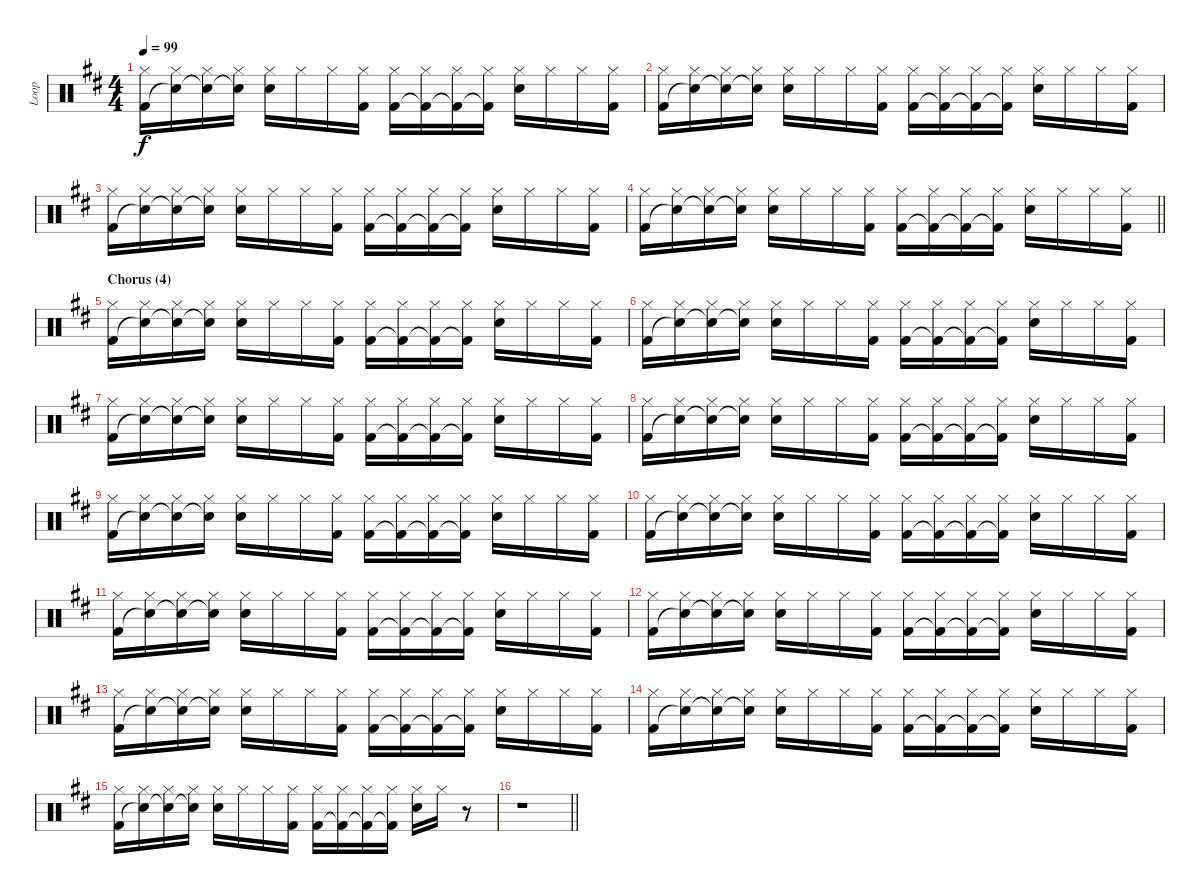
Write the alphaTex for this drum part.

\track ("Loop" "Loop") {instrument percussion}
\staff {score}
\articulation defaults
\ts (4 4)
\tempo 99
\clef neutral
\ks d
("Hi-Hat (closed)" "Kick (hit) 2").16{dy f} ("Hi-Hat (closed)" "Snare (hit)"{t}).16 ("Hi-Hat (closed)" "Snare (hit)"{t}).16 ("Hi-Hat (closed)" "Snare (hit)"{t}).16 ("Hi-Hat (closed)" "Electric Snare (hit)").16 "Hi-Hat (closed)".16 "Hi-Hat (closed)".16 ("Hi-Hat (closed)" "Kick (hit) 2").16 ("Hi-Hat (closed)" "Kick (hit) 2").16 ("Hi-Hat (closed)" "Kick (hit) 2"{t}).16 ("Hi-Hat (closed)" "Kick (hit) 2"{t}).16 ("Hi-Hat (closed)" "Kick (hit) 2"{t}).16 ("Hi-Hat (closed)" "Electric Snare (hit)").16 "Hi-Hat (closed)".16 "Hi-Hat (closed)".16 ("Hi-Hat (closed)" "Kick (hit) 2").16 |
("Hi-Hat (closed)" "Kick (hit) 2").16 ("Hi-Hat (closed)" "Snare (hit)"{t}).16 ("Hi-Hat (closed)" "Snare (hit)"{t}).16 ("Hi-Hat (closed)" "Snare (hit)"{t}).16 ("Hi-Hat (closed)" "Electric Snare (hit)").16 "Hi-Hat (closed)".16 "Hi-Hat (closed)".16 ("Hi-Hat (closed)" "Kick (hit) 2").16 ("Hi-Hat (closed)" "Kick (hit) 2").16 ("Hi-Hat (closed)" "Kick (hit) 2"{t}).16 ("Hi-Hat (closed)" "Kick (hit) 2"{t}).16 ("Hi-Hat (closed)" "Kick (hit) 2"{t}).16 ("Hi-Hat (closed)" "Electric Snare (hit)").16 "Hi-Hat (closed)".16 "Hi-Hat (closed)".16 ("Hi-Hat (closed)" "Kick (hit) 2").16 |
("Hi-Hat (closed)" "Kick (hit) 2").16 ("Hi-Hat (closed)" "Snare (hit)"{t}).16 ("Hi-Hat (closed)" "Snare (hit)"{t}).16 ("Hi-Hat (closed)" "Snare (hit)"{t}).16 ("Hi-Hat (closed)" "Electric Snare (hit)").16 "Hi-Hat (closed)".16 "Hi-Hat (closed)".16 ("Hi-Hat (closed)" "Kick (hit) 2").16 ("Hi-Hat (closed)" "Kick (hit) 2").16 ("Hi-Hat (closed)" "Kick (hit) 2"{t}).16 ("Hi-Hat (closed)" "Kick (hit) 2"{t}).16 ("Hi-Hat (closed)" "Kick (hit) 2"{t}).16 ("Hi-Hat (closed)" "Electric Snare (hit)").16 "Hi-Hat (closed)".16 "Hi-Hat (closed)".16 ("Hi-Hat (closed)" "Kick (hit) 2").16 |
\barLineRight lightlight
("Hi-Hat (closed)" "Kick (hit) 2").16 ("Hi-Hat (closed)" "Snare (hit)"{t}).16 ("Hi-Hat (closed)" "Snare (hit)"{t}).16 ("Hi-Hat (closed)" "Snare (hit)"{t}).16 ("Hi-Hat (closed)" "Electric Snare (hit)").16 "Hi-Hat (closed)".16 "Hi-Hat (closed)".16 ("Hi-Hat (closed)" "Kick (hit) 2").16 ("Hi-Hat (closed)" "Kick (hit) 2").16 ("Hi-Hat (closed)" "Kick (hit) 2"{t}).16 ("Hi-Hat (closed)" "Kick (hit) 2"{t}).16 ("Hi-Hat (closed)" "Kick (hit) 2"{t}).16 ("Hi-Hat (closed)" "Electric Snare (hit)").16 "Hi-Hat (closed)".16 "Hi-Hat (closed)".16 ("Hi-Hat (closed)" "Kick (hit) 2").16 |
\section ("" "Chorus (4)")
("Hi-Hat (closed)" "Kick (hit) 2").16 ("Hi-Hat (closed)" "Snare (hit)"{t}).16 ("Hi-Hat (closed)" "Snare (hit)"{t}).16 ("Hi-Hat (closed)" "Snare (hit)"{t}).16 ("Hi-Hat (closed)" "Electric Snare (hit)").16 "Hi-Hat (closed)".16 "Hi-Hat (closed)".16 ("Hi-Hat (closed)" "Kick (hit) 2").16 ("Hi-Hat (closed)" "Kick (hit) 2").16 ("Hi-Hat (closed)" "Kick (hit) 2"{t}).16 ("Hi-Hat (closed)" "Kick (hit) 2"{t}).16 ("Hi-Hat (closed)" "Kick (hit) 2"{t}).16 ("Hi-Hat (closed)" "Electric Snare (hit)").16 "Hi-Hat (closed)".16 "Hi-Hat (closed)".16 ("Hi-Hat (closed)" "Kick (hit) 2").16 |
("Hi-Hat (closed)" "Kick (hit) 2").16 ("Hi-Hat (closed)" "Snare (hit)"{t}).16 ("Hi-Hat (closed)" "Snare (hit)"{t}).16 ("Hi-Hat (closed)" "Snare (hit)"{t}).16 ("Hi-Hat (closed)" "Electric Snare (hit)").16 "Hi-Hat (closed)".16 "Hi-Hat (closed)".16 ("Hi-Hat (closed)" "Kick (hit) 2").16 ("Hi-Hat (closed)" "Kick (hit) 2").16 ("Hi-Hat (closed)" "Kick (hit) 2"{t}).16 ("Hi-Hat (closed)" "Kick (hit) 2"{t}).16 ("Hi-Hat (closed)" "Kick (hit) 2"{t}).16 ("Hi-Hat (closed)" "Electric Snare (hit)").16 "Hi-Hat (closed)".16 "Hi-Hat (closed)".16 ("Hi-Hat (closed)" "Kick (hit) 2").16 |
("Hi-Hat (closed)" "Kick (hit) 2").16 ("Hi-Hat (closed)" "Snare (hit)"{t}).16 ("Hi-Hat (closed)" "Snare (hit)"{t}).16 ("Hi-Hat (closed)" "Snare (hit)"{t}).16 ("Hi-Hat (closed)" "Electric Snare (hit)").16 "Hi-Hat (closed)".16 "Hi-Hat (closed)".16 ("Hi-Hat (closed)" "Kick (hit) 2").16 ("Hi-Hat (closed)" "Kick (hit) 2").16 ("Hi-Hat (closed)" "Kick (hit) 2"{t}).16 ("Hi-Hat (closed)" "Kick (hit) 2"{t}).16 ("Hi-Hat (closed)" "Kick (hit) 2"{t}).16 ("Hi-Hat (closed)" "Electric Snare (hit)").16 "Hi-Hat (closed)".16 "Hi-Hat (closed)".16 ("Hi-Hat (closed)" "Kick (hit) 2").16 |
("Hi-Hat (closed)" "Kick (hit) 2").16 ("Hi-Hat (closed)" "Snare (hit)"{t}).16 ("Hi-Hat (closed)" "Snare (hit)"{t}).16 ("Hi-Hat (closed)" "Snare (hit)"{t}).16 ("Hi-Hat (closed)" "Electric Snare (hit)").16 "Hi-Hat (closed)".16 "Hi-Hat (closed)".16 ("Hi-Hat (closed)" "Kick (hit) 2").16 ("Hi-Hat (closed)" "Kick (hit) 2").16 ("Hi-Hat (closed)" "Kick (hit) 2"{t}).16 ("Hi-Hat (closed)" "Kick (hit) 2"{t}).16 ("Hi-Hat (closed)" "Kick (hit) 2"{t}).16 ("Hi-Hat (closed)" "Electric Snare (hit)").16 "Hi-Hat (closed)".16 "Hi-Hat (closed)".16 ("Hi-Hat (closed)" "Kick (hit) 2").16 |
("Hi-Hat (closed)" "Kick (hit) 2").16 ("Hi-Hat (closed)" "Snare (hit)"{t}).16 ("Hi-Hat (closed)" "Snare (hit)"{t}).16 ("Hi-Hat (closed)" "Snare (hit)"{t}).16 ("Hi-Hat (closed)" "Electric Snare (hit)").16 "Hi-Hat (closed)".16 "Hi-Hat (closed)".16 ("Hi-Hat (closed)" "Kick (hit) 2").16 ("Hi-Hat (closed)" "Kick (hit) 2").16 ("Hi-Hat (closed)" "Kick (hit) 2"{t}).16 ("Hi-Hat (closed)" "Kick (hit) 2"{t}).16 ("Hi-Hat (closed)" "Kick (hit) 2"{t}).16 ("Hi-Hat (closed)" "Electric Snare (hit)").16 "Hi-Hat (closed)".16 "Hi-Hat (closed)".16 ("Hi-Hat (closed)" "Kick (hit) 2").16 |
("Hi-Hat (closed)" "Kick (hit) 2").16 ("Hi-Hat (closed)" "Snare (hit)"{t}).16 ("Hi-Hat (closed)" "Snare (hit)"{t}).16 ("Hi-Hat (closed)" "Snare (hit)"{t}).16 ("Hi-Hat (closed)" "Electric Snare (hit)").16 "Hi-Hat (closed)".16 "Hi-Hat (closed)".16 ("Hi-Hat (closed)" "Kick (hit) 2").16 ("Hi-Hat (closed)" "Kick (hit) 2").16 ("Hi-Hat (closed)" "Kick (hit) 2"{t}).16 ("Hi-Hat (closed)" "Kick (hit) 2"{t}).16 ("Hi-Hat (closed)" "Kick (hit) 2"{t}).16 ("Hi-Hat (closed)" "Electric Snare (hit)").16 "Hi-Hat (closed)".16 "Hi-Hat (closed)".16 ("Hi-Hat (closed)" "Kick (hit) 2").16 |
("Hi-Hat (closed)" "Kick (hit) 2").16 ("Hi-Hat (closed)" "Snare (hit)"{t}).16 ("Hi-Hat (closed)" "Snare (hit)"{t}).16 ("Hi-Hat (closed)" "Snare (hit)"{t}).16 ("Hi-Hat (closed)" "Electric Snare (hit)").16 "Hi-Hat (closed)".16 "Hi-Hat (closed)".16 ("Hi-Hat (closed)" "Kick (hit) 2").16 ("Hi-Hat (closed)" "Kick (hit) 2").16 ("Hi-Hat (closed)" "Kick (hit) 2"{t}).16 ("Hi-Hat (closed)" "Kick (hit) 2"{t}).16 ("Hi-Hat (closed)" "Kick (hit) 2"{t}).16 ("Hi-Hat (closed)" "Electric Snare (hit)").16 "Hi-Hat (closed)".16 "Hi-Hat (closed)".16 ("Hi-Hat (closed)" "Kick (hit) 2").16 |
("Hi-Hat (closed)" "Kick (hit) 2").16 ("Hi-Hat (closed)" "Snare (hit)"{t}).16 ("Hi-Hat (closed)" "Snare (hit)"{t}).16 ("Hi-Hat (closed)" "Snare (hit)"{t}).16 ("Hi-Hat (closed)" "Electric Snare (hit)").16 "Hi-Hat (closed)".16 "Hi-Hat (closed)".16 ("Hi-Hat (closed)" "Kick (hit) 2").16 ("Hi-Hat (closed)" "Kick (hit) 2").16 ("Hi-Hat (closed)" "Kick (hit) 2"{t}).16 ("Hi-Hat (closed)" "Kick (hit) 2"{t}).16 ("Hi-Hat (closed)" "Kick (hit) 2"{t}).16 ("Hi-Hat (closed)" "Electric Snare (hit)").16 "Hi-Hat (closed)".16 "Hi-Hat (closed)".16 ("Hi-Hat (closed)" "Kick (hit) 2").16 |
("Hi-Hat (closed)" "Kick (hit) 2").16 ("Hi-Hat (closed)" "Snare (hit)"{t}).16 ("Hi-Hat (closed)" "Snare (hit)"{t}).16 ("Hi-Hat (closed)" "Snare (hit)"{t}).16 ("Hi-Hat (closed)" "Electric Snare (hit)").16 "Hi-Hat (closed)".16 "Hi-Hat (closed)".16 ("Hi-Hat (closed)" "Kick (hit) 2").16 ("Hi-Hat (closed)" "Kick (hit) 2").16 ("Hi-Hat (closed)" "Kick (hit) 2"{t}).16 ("Hi-Hat (closed)" "Kick (hit) 2"{t}).16 ("Hi-Hat (closed)" "Kick (hit) 2"{t}).16 ("Hi-Hat (closed)" "Electric Snare (hit)").16 "Hi-Hat (closed)".16 "Hi-Hat (closed)".16 ("Hi-Hat (closed)" "Kick (hit) 2").16 |
("Hi-Hat (closed)" "Kick (hit) 2").16 ("Hi-Hat (closed)" "Snare (hit)"{t}).16 ("Hi-Hat (closed)" "Snare (hit)"{t}).16 ("Hi-Hat (closed)" "Snare (hit)"{t}).16 ("Hi-Hat (closed)" "Electric Snare (hit)").16 "Hi-Hat (closed)".16 "Hi-Hat (closed)".16 ("Hi-Hat (closed)" "Kick (hit) 2").16 ("Hi-Hat (closed)" "Kick (hit) 2").16 ("Hi-Hat (closed)" "Kick (hit) 2"{t}).16 ("Hi-Hat (closed)" "Kick (hit) 2"{t}).16 ("Hi-Hat (closed)" "Kick (hit) 2"{t}).16 ("Hi-Hat (closed)" "Electric Snare (hit)").16 "Hi-Hat (closed)".16 "Hi-Hat (closed)".16 ("Hi-Hat (closed)" "Kick (hit) 2").16 |
("Hi-Hat (closed)" "Kick (hit) 2").16 ("Hi-Hat (closed)" "Snare (hit)"{t}).16 ("Hi-Hat (closed)" "Snare (hit)"{t}).16 ("Hi-Hat (closed)" "Snare (hit)"{t}).16 ("Hi-Hat (closed)" "Electric Snare (hit)").16 "Hi-Hat (closed)".16 "Hi-Hat (closed)".16 ("Hi-Hat (closed)" "Kick (hit) 2").16 ("Hi-Hat (closed)" "Kick (hit) 2").16 ("Hi-Hat (closed)" "Kick (hit) 2"{t}).16 ("Hi-Hat (closed)" "Kick (hit) 2"{t}).16 ("Hi-Hat (closed)" "Kick (hit) 2"{t}).16 ("Hi-Hat (closed)" "Electric Snare (hit)").16 "Hi-Hat (closed)".16 r.8 |
\barLineRight lightlight
r.1
